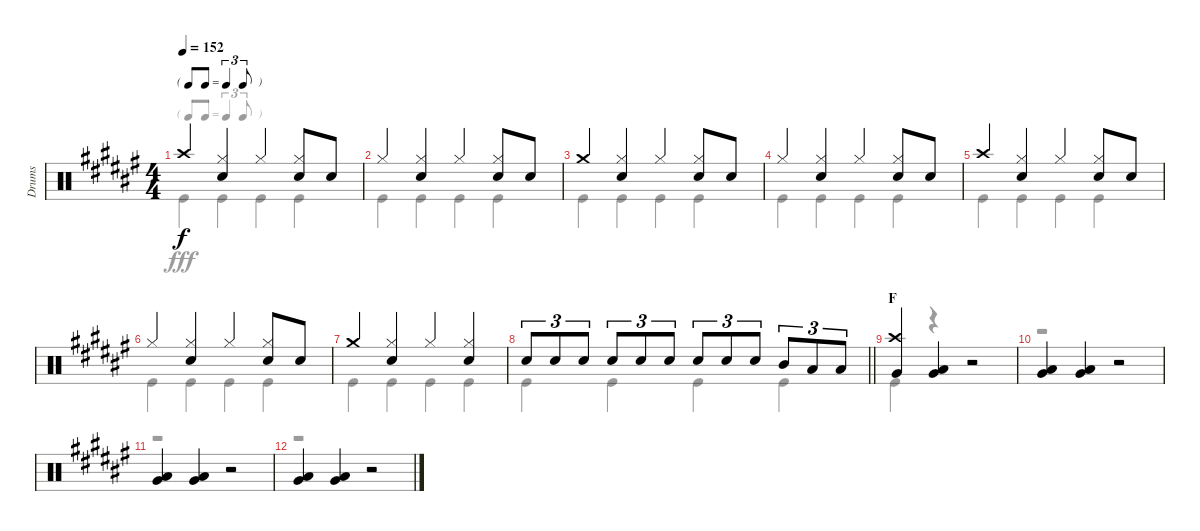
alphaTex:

\track ("Drums" "Drums") {instrument percussion}
\staff {score}
\articulation defaults
\voice
\ts (4 4)
\tf triplet8th
\tempo 152
\clef neutral
\ks f# "Crash high (hit)".4{dy f}
("Hi-Hat (closed)" "Snare (hit) 2").4 "Hi-Hat (closed)".4 ("Hi-Hat (closed)" "Snare (hit) 2").8 "Snare (hit) 2".8 |
"Hi-Hat (closed)".4 ("Hi-Hat (closed)" "Snare (hit) 2").4 "Hi-Hat (closed)".4 ("Hi-Hat (closed)" "Snare (hit) 2").8 "Snare (hit) 2".8 |
"Crash medium (hit)".4 ("Hi-Hat (closed)" "Snare (hit) 2").4 "Hi-Hat (closed)".4 ("Hi-Hat (closed)" "Snare (hit) 2").8 "Snare (hit) 2".8 |
"Hi-Hat (closed)".4 ("Hi-Hat (closed)" "Snare (hit) 2").4 "Hi-Hat (closed)".4 ("Hi-Hat (closed)" "Snare (hit) 2").8 "Snare (hit) 2".8 |
"Crash high (hit)".4 ("Hi-Hat (closed)" "Snare (hit) 2").4 "Hi-Hat (closed)".4 ("Hi-Hat (closed)" "Snare (hit) 2").8 "Snare (hit) 2".8 |
"Hi-Hat (closed)".4 ("Hi-Hat (closed)" "Snare (hit) 2").4 "Hi-Hat (closed)".4 ("Hi-Hat (closed)" "Snare (hit) 2").8 "Snare (hit) 2".8 |
"Crash medium (hit)".4 ("Hi-Hat (closed)" "Snare (hit) 2").4 "Hi-Hat (closed)".4 ("Hi-Hat (closed)" "Snare (hit) 2").4 |
\barLineRight lightlight "Snare (hit) 2".8{tu (3 2)} "Snare (hit) 2".8{tu (3 2)} "Snare (hit) 2".8{tu (3 2)} "Snare (hit) 2".8{tu (3 2)} "Snare (hit) 2".8{tu (3 2)} "Snare (hit) 2".8{tu (3 2)} "Snare (hit) 2".8{tu (3 2)} "Snare (hit) 2".8{tu (3 2)} "Snare (hit) 2".8{tu (3 2)} "Mid Tom (hit)".8{tu (3 2)} "Low Tom (hit)".8{tu (3 2)} "Low Tom (hit)".8{tu (3 2)}
|
\section ("" "F")
("Crash high (hit)" "Very Low Tom (hit)").4 ("Low Tom (hit)" "Very Low Tom (hit)").4 r.2 |
("Low Tom (hit)" "Very Low Tom (hit)").4 ("Low Tom (hit)" "Very Low Tom (hit)").4 r.2 |
("Low Tom (hit)" "Very Low Tom (hit)").4 ("Low Tom (hit)" "Very Low Tom (hit)").4 r.2 |
("Low Tom (hit)" "Very Low Tom (hit)").4 ("Low Tom (hit)" "Very Low Tom (hit)").4 r.2
\voice
\clef neutral
\ottava regular
\simile none
\ks f# "Kick (hit)".4{dy fff} "Kick (hit)".4 "Kick (hit)".4 "Kick (hit)".4
|
"Kick (hit)".4 "Kick (hit)".4 "Kick (hit)".4 "Kick (hit)".4 |
"Kick (hit)".4 "Kick (hit)".4 "Kick (hit)".4 "Kick (hit)".4 |
"Kick (hit)".4 "Kick (hit)".4 "Kick (hit)".4 "Kick (hit)".4 |
"Kick (hit)".4 "Kick (hit)".4 "Kick (hit)".4 "Kick (hit)".4 |
"Kick (hit)".4 "Kick (hit)".4 "Kick (hit)".4 "Kick (hit)".4 |
"Kick (hit)".4 "Kick (hit)".4 "Kick (hit)".4 "Kick (hit)".4 |
\barLineRight lightlight "Kick (hit)".4 "Kick (hit)".4 "Kick (hit)".4 "Kick (hit)".4
|
"Kick (hit)".4 r.4 r.2 |
r.1 |
r.1 |
r.1
